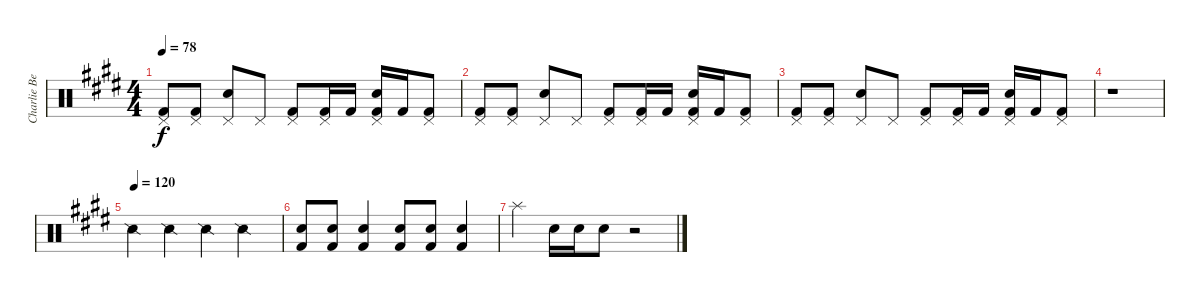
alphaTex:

\track ("Charlie Benate " "Charlie Be") {instrument percussion}
\staff {score}
\articulation defaults
\ts (4 4)
\tempo 78
\clef neutral
\ks e
("Pedal Hi-Hat (hit)" "Kick (hit) 2").8{dy f} ("Pedal Hi-Hat (hit)" "Kick (hit) 2").8 ("Pedal Hi-Hat (hit)" "Snare (hit) 2").8 "Pedal Hi-Hat (hit)".8 ("Pedal Hi-Hat (hit)" "Kick (hit) 2").8 ("Pedal Hi-Hat (hit)" "Kick (hit) 2").16 "Kick (hit) 2".16 ("Pedal Hi-Hat (hit)" "Snare (hit) 2" "Kick (hit) 2").16 "Kick (hit) 2".16 ("Pedal Hi-Hat (hit)" "Kick (hit) 2").8 |
("Pedal Hi-Hat (hit)" "Kick (hit) 2").8 ("Pedal Hi-Hat (hit)" "Kick (hit) 2").8 ("Pedal Hi-Hat (hit)" "Snare (hit) 2").8 "Pedal Hi-Hat (hit)".8 ("Pedal Hi-Hat (hit)" "Kick (hit) 2").8 ("Pedal Hi-Hat (hit)" "Kick (hit) 2").16 "Kick (hit) 2".16 ("Pedal Hi-Hat (hit)" "Snare (hit) 2" "Kick (hit) 2").16 "Kick (hit) 2".16 ("Pedal Hi-Hat (hit)" "Kick (hit) 2").8 |
("Pedal Hi-Hat (hit)" "Kick (hit) 2").8 ("Pedal Hi-Hat (hit)" "Kick (hit) 2").8 ("Pedal Hi-Hat (hit)" "Snare (hit) 2").8 "Pedal Hi-Hat (hit)".8 ("Pedal Hi-Hat (hit)" "Kick (hit) 2").8 ("Pedal Hi-Hat (hit)" "Kick (hit) 2").16 "Kick (hit) 2".16 ("Pedal Hi-Hat (hit)" "Snare (hit) 2" "Kick (hit) 2").16 "Kick (hit) 2".16 ("Pedal Hi-Hat (hit)" "Kick (hit) 2").8 |
r.1 |
\tempo (120)
"Snare (side stick) 2".4{volume 7} "Snare (side stick) 2".4 "Snare (side stick) 2".4 "Snare (side stick) 2".4 |
("Snare (hit) 2" "Kick (hit) 2").8 ("Snare (hit) 2" "Kick (hit) 2").8 ("Snare (hit) 2" "Kick (hit) 2").4 ("Snare (hit) 2" "Kick (hit) 2").8 ("Snare (hit) 2" "Kick (hit) 2").8 ("Snare (hit) 2" "Kick (hit) 2").4 |
"Splash (hit)".4 "Snare (hit) 2".16 "Snare (hit) 2".16 "Snare (hit) 2".8 r.2
